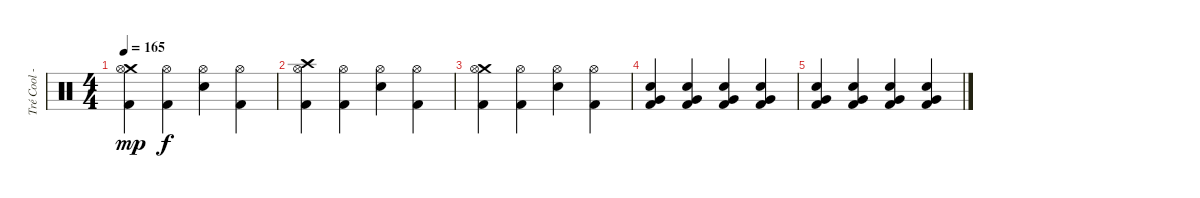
\track ("Tré Cool - Drums" "Tré Cool -") {instrument percussion}
\staff {score}
\articulation defaults
\ts (4 4)
\tempo 165
\clef neutral
\ks c
("Crash medium (hit)" "Hi-Hat (open)" "Kick (hit) 2").4{dy mp} ("Hi-Hat (open)" "Kick (hit) 2").4{dy f} ("Hi-Hat (open)" "Electric Snare (hit)").4 ("Hi-Hat (open)" "Kick (hit) 2").4 |
("Crash high (hit)" "Hi-Hat (open)" "Kick (hit) 2").4 ("Hi-Hat (open)" "Kick (hit) 2").4 ("Hi-Hat (open)" "Electric Snare (hit)").4 ("Hi-Hat (open)" "Kick (hit) 2").4 |
("Crash medium (hit)" "Hi-Hat (open)" "Kick (hit) 2").4 ("Hi-Hat (open)" "Kick (hit) 2").4 ("Hi-Hat (open)" "Electric Snare (hit)").4 ("Hi-Hat (open)" "Kick (hit) 2").4 |
("Very Low Tom (hit)" "Electric Snare (hit)" "Kick (hit) 2").4 ("Very Low Tom (hit)" "Electric Snare (hit)" "Kick (hit) 2").4 ("Very Low Tom (hit)" "Electric Snare (hit)" "Kick (hit) 2").4 ("Very Low Tom (hit)" "Electric Snare (hit)" "Kick (hit) 2").4 |
("Very Low Tom (hit)" "Electric Snare (hit)" "Kick (hit) 2").4 ("Very Low Tom (hit)" "Electric Snare (hit)" "Kick (hit) 2").4 ("Very Low Tom (hit)" "Electric Snare (hit)" "Kick (hit) 2").4 ("Very Low Tom (hit)" "Electric Snare (hit)" "Kick (hit) 2").4
